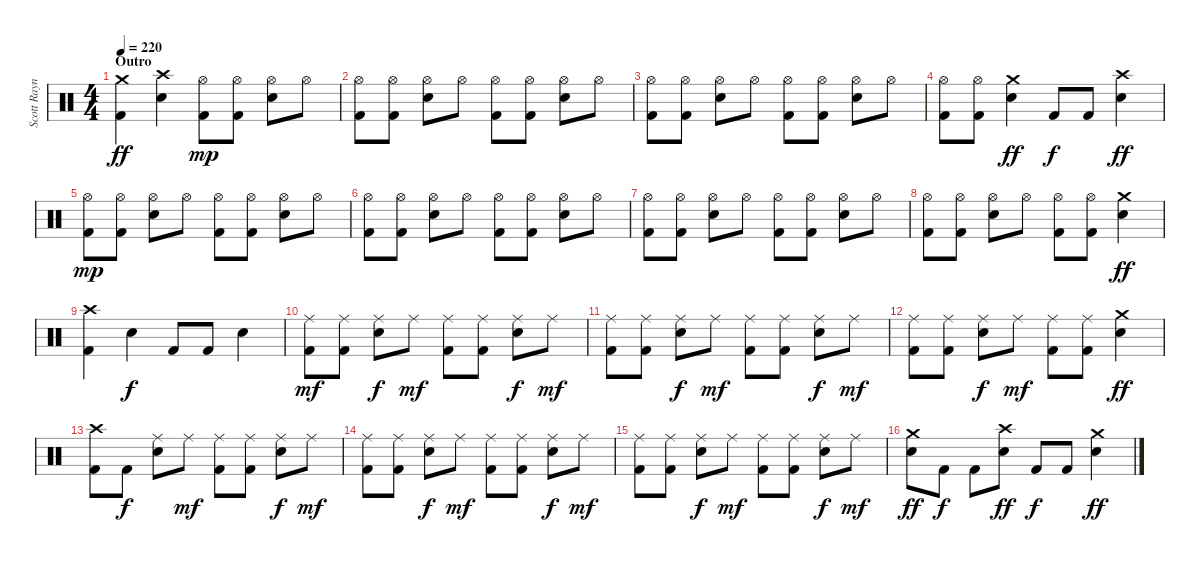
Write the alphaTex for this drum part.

\track ("Scott Raynor - Drums" "Scott Rayn") {instrument percussion}
\staff {score}
\articulation defaults
\ts (4 4)
\section ("" "Outro")
\tempo 220
\clef neutral
\ks c
("Crash medium (hit)" "Kick (hit) 2").4{dy ff} ("Crash high (hit)" "Electric Snare (hit)").4 ("Hi-Hat (open)" "Kick (hit) 2").8{dy mp} ("Hi-Hat (open)" "Kick (hit) 2").8 ("Hi-Hat (open)" "Electric Snare (hit)").8 "Hi-Hat (open)".8 |
("Hi-Hat (open)" "Kick (hit) 2").8 ("Hi-Hat (open)" "Kick (hit) 2").8 ("Hi-Hat (open)" "Electric Snare (hit)").8 "Hi-Hat (open)".8 ("Hi-Hat (open)" "Kick (hit) 2").8 ("Hi-Hat (open)" "Kick (hit) 2").8 ("Hi-Hat (open)" "Electric Snare (hit)").8 "Hi-Hat (open)".8 |
("Hi-Hat (open)" "Kick (hit) 2").8 ("Hi-Hat (open)" "Kick (hit) 2").8 ("Hi-Hat (open)" "Electric Snare (hit)").8 "Hi-Hat (open)".8 ("Hi-Hat (open)" "Kick (hit) 2").8 ("Hi-Hat (open)" "Kick (hit) 2").8 ("Hi-Hat (open)" "Electric Snare (hit)").8 "Hi-Hat (open)".8 |
("Hi-Hat (open)" "Kick (hit) 2").8 ("Hi-Hat (open)" "Kick (hit) 2").8 ("Crash medium (hit)" "Electric Snare (hit)").4{dy ff} "Kick (hit) 2".8{dy f} "Kick (hit) 2".8 ("Crash high (hit)" "Electric Snare (hit)").4{dy ff} |
("Hi-Hat (open)" "Kick (hit) 2").8{dy mp} ("Hi-Hat (open)" "Kick (hit) 2").8 ("Hi-Hat (open)" "Electric Snare (hit)").8 "Hi-Hat (open)".8 ("Hi-Hat (open)" "Kick (hit) 2").8 ("Hi-Hat (open)" "Kick (hit) 2").8 ("Hi-Hat (open)" "Electric Snare (hit)").8 "Hi-Hat (open)".8 |
("Hi-Hat (open)" "Kick (hit) 2").8 ("Hi-Hat (open)" "Kick (hit) 2").8 ("Hi-Hat (open)" "Electric Snare (hit)").8 "Hi-Hat (open)".8 ("Hi-Hat (open)" "Kick (hit) 2").8 ("Hi-Hat (open)" "Kick (hit) 2").8 ("Hi-Hat (open)" "Electric Snare (hit)").8 "Hi-Hat (open)".8 |
("Hi-Hat (open)" "Kick (hit) 2").8 ("Hi-Hat (open)" "Kick (hit) 2").8 ("Hi-Hat (open)" "Electric Snare (hit)").8 "Hi-Hat (open)".8 ("Hi-Hat (open)" "Kick (hit) 2").8 ("Hi-Hat (open)" "Kick (hit) 2").8 ("Hi-Hat (open)" "Electric Snare (hit)").8 "Hi-Hat (open)".8 |
("Hi-Hat (open)" "Kick (hit) 2").8 ("Hi-Hat (open)" "Kick (hit) 2").8 ("Hi-Hat (open)" "Electric Snare (hit)").8 "Hi-Hat (open)".8 ("Hi-Hat (open)" "Kick (hit) 2").8 ("Hi-Hat (open)" "Kick (hit) 2").8 ("Crash medium (hit)" "Electric Snare (hit)").4{dy ff} |
("Crash high (hit)" "Kick (hit) 2").4 "Electric Snare (hit)".4{dy f} "Kick (hit) 2".8 "Kick (hit) 2".8 "Electric Snare (hit)".4 |
("Ride (middle)" "Kick (hit) 2").8{dy mf} ("Ride (middle)" "Kick (hit) 2").8 ("Ride (middle)" "Electric Snare (hit)").8{dy f} "Ride (middle)".8{dy mf} ("Ride (middle)" "Kick (hit) 2").8 ("Ride (middle)" "Kick (hit) 2").8 ("Ride (middle)" "Electric Snare (hit)").8{dy f} "Ride (middle)".8{dy mf} |
("Ride (middle)" "Kick (hit) 2").8 ("Ride (middle)" "Kick (hit) 2").8 ("Ride (middle)" "Electric Snare (hit)").8{dy f} "Ride (middle)".8{dy mf} ("Ride (middle)" "Kick (hit) 2").8 ("Ride (middle)" "Kick (hit) 2").8 ("Ride (middle)" "Electric Snare (hit)").8{dy f} "Ride (middle)".8{dy mf} |
("Ride (middle)" "Kick (hit) 2").8 ("Ride (middle)" "Kick (hit) 2").8 ("Ride (middle)" "Electric Snare (hit)").8{dy f} "Ride (middle)".8{dy mf} ("Ride (middle)" "Kick (hit) 2").8 ("Ride (middle)" "Kick (hit) 2").8 ("Crash medium (hit)" "Electric Snare (hit)").4{dy ff} |
("Crash high (hit)" "Kick (hit) 2").8 "Kick (hit) 2".8{dy f} ("Ride (middle)" "Electric Snare (hit)").8 "Ride (middle)".8{dy mf} ("Ride (middle)" "Kick (hit) 2").8 ("Ride (middle)" "Kick (hit) 2").8 ("Ride (middle)" "Electric Snare (hit)").8{dy f} "Ride (middle)".8{dy mf} |
("Ride (middle)" "Kick (hit) 2").8 ("Ride (middle)" "Kick (hit) 2").8 ("Ride (middle)" "Electric Snare (hit)").8{dy f} "Ride (middle)".8{dy mf} ("Ride (middle)" "Kick (hit) 2").8 ("Ride (middle)" "Kick (hit) 2").8 ("Ride (middle)" "Electric Snare (hit)").8{dy f} "Ride (middle)".8{dy mf} |
("Ride (middle)" "Kick (hit) 2").8 ("Ride (middle)" "Kick (hit) 2").8 ("Ride (middle)" "Electric Snare (hit)").8{dy f} "Ride (middle)".8{dy mf} ("Ride (middle)" "Kick (hit) 2").8 ("Ride (middle)" "Kick (hit) 2").8 ("Ride (middle)" "Electric Snare (hit)").8{dy f} "Ride (middle)".8{dy mf} |
("Crash medium (hit)" "Electric Snare (hit)").8{dy ff} "Kick (hit) 2".8{dy f} "Kick (hit) 2".8 ("Crash high (hit)" "Electric Snare (hit)").8{dy ff} "Kick (hit) 2".8{dy f} "Kick (hit) 2".8 ("Crash medium (hit)" "Electric Snare (hit)").4{dy ff}
